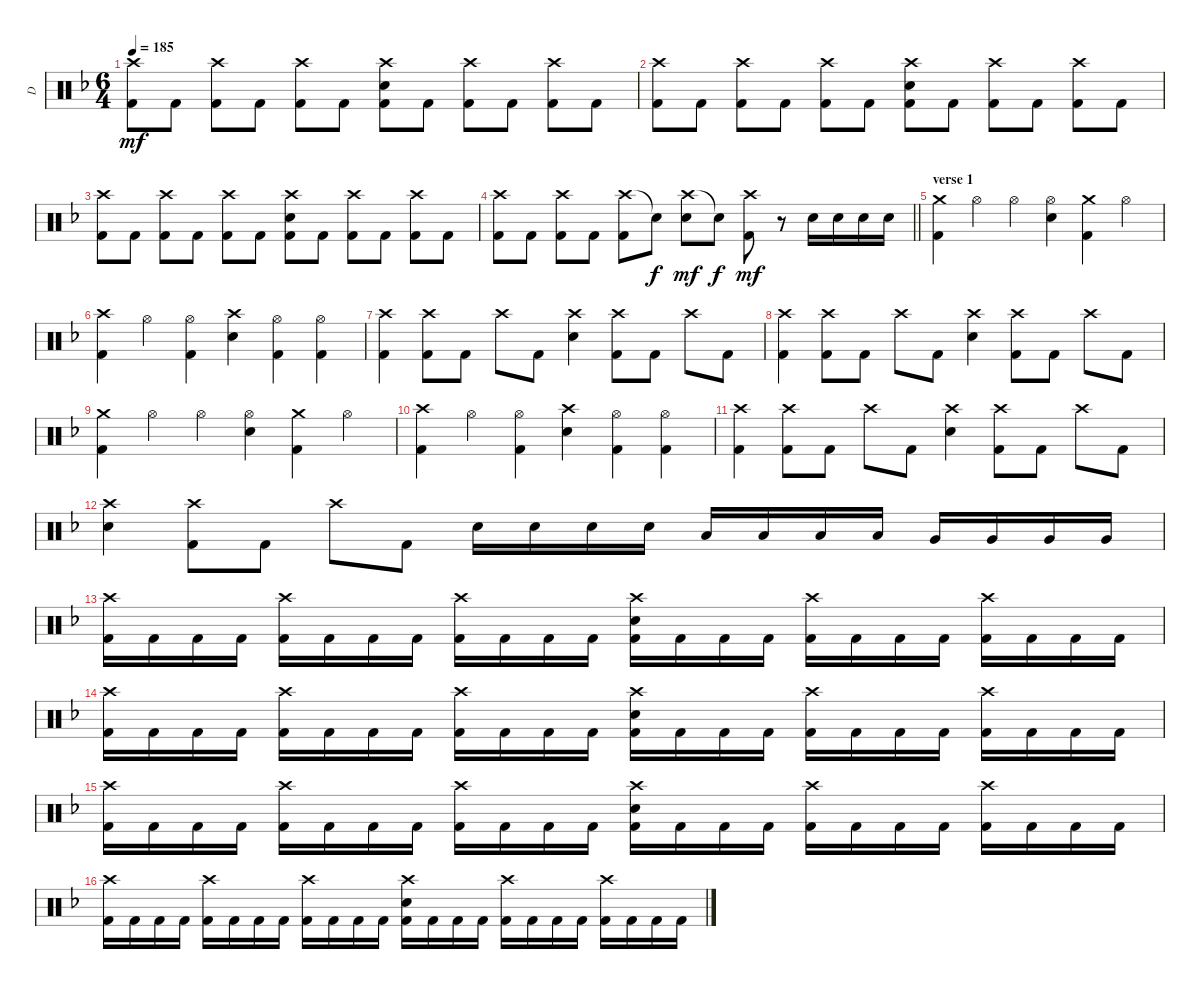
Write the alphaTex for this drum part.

\track ("D" "D") {instrument percussion}
\staff {score}
\articulation defaults
\ts (6 4)
\tempo 185
\clef neutral
\ks dminor
("Crash high (hit)" "Kick (hit) 2").8{dy mf} "Kick (hit) 2".8 ("Crash high (hit)" "Kick (hit) 2").8 "Kick (hit) 2".8 ("Crash high (hit)" "Kick (hit) 2").8 "Kick (hit) 2".8 ("Crash high (hit)" "Snare (hit) 2" "Kick (hit) 2").8 "Kick (hit) 2".8 ("Crash high (hit)" "Kick (hit) 2").8 "Kick (hit) 2".8 ("Crash high (hit)" "Kick (hit) 2").8 "Kick (hit) 2".8 |
("Crash high (hit)" "Kick (hit) 2").8 "Kick (hit) 2".8 ("Crash high (hit)" "Kick (hit) 2").8 "Kick (hit) 2".8 ("Crash high (hit)" "Kick (hit) 2").8 "Kick (hit) 2".8 ("Crash high (hit)" "Snare (hit) 2" "Kick (hit) 2").8 "Kick (hit) 2".8 ("Crash high (hit)" "Kick (hit) 2").8 "Kick (hit) 2".8 ("Crash high (hit)" "Kick (hit) 2").8 "Kick (hit) 2".8 |
("Crash high (hit)" "Kick (hit) 2").8 "Kick (hit) 2".8 ("Crash high (hit)" "Kick (hit) 2").8 "Kick (hit) 2".8 ("Crash high (hit)" "Kick (hit) 2").8 "Kick (hit) 2".8 ("Crash high (hit)" "Snare (hit) 2" "Kick (hit) 2").8 "Kick (hit) 2".8 ("Crash high (hit)" "Kick (hit) 2").8 "Kick (hit) 2".8 ("Crash high (hit)" "Kick (hit) 2").8 "Kick (hit) 2".8 |
\barLineRight lightlight
("Crash high (hit)" "Kick (hit) 2").8 "Kick (hit) 2".8 ("Crash high (hit)" "Kick (hit) 2").8 "Kick (hit) 2".8 ("Crash high (hit)" "Kick (hit) 2").8 "Snare (hit)"{t}.8{dy f} ("Crash high (hit)" "Snare (hit) 2").8{dy mf} "Snare (hit)"{t}.8{dy f} ("Crash high (hit)" "Kick (hit) 2").8{dy mf} r.8 "Snare (hit) 2".16 "Snare (hit) 2".16 "Snare (hit) 2".16 "Snare (hit) 2".16 |
\section ("" "verse 1")
("Crash medium (hit)" "Kick (hit) 2").4 "Hi-Hat (open)".4 "Hi-Hat (open)".4 ("Hi-Hat (open)" "Snare (hit) 2").4 ("Crash medium (hit)" "Kick (hit) 2").4 "Hi-Hat (open)".4 |
("Crash high (hit)" "Kick (hit) 2").4 "Hi-Hat (open)".4 ("Hi-Hat (open)" "Kick (hit) 2").4 ("Crash high (hit)" "Snare (hit) 2").4 ("Hi-Hat (open)" "Kick (hit) 2").4 ("Hi-Hat (open)" "Kick (hit) 2").4 |
("Crash high (hit)" "Kick (hit) 2").4 ("Crash high (hit)" "Kick (hit) 2").8 "Kick (hit) 2".8 "Crash high (hit)".8 "Kick (hit) 2".8 ("Crash high (hit)" "Snare (hit) 2").4 ("Crash high (hit)" "Kick (hit) 2").8 "Kick (hit) 2".8 "Crash high (hit)".8 "Kick (hit) 2".8 |
("Crash high (hit)" "Kick (hit) 2").4 ("Crash high (hit)" "Kick (hit) 2").8 "Kick (hit) 2".8 "Crash high (hit)".8 "Kick (hit) 2".8 ("Crash high (hit)" "Snare (hit) 2").4 ("Crash high (hit)" "Kick (hit) 2").8 "Kick (hit) 2".8 "Crash high (hit)".8 "Kick (hit) 2".8 |
("Crash medium (hit)" "Kick (hit) 2").4 "Hi-Hat (open)".4 "Hi-Hat (open)".4 ("Hi-Hat (open)" "Snare (hit) 2").4 ("Crash medium (hit)" "Kick (hit) 2").4 "Hi-Hat (open)".4 |
("Crash high (hit)" "Kick (hit) 2").4 "Hi-Hat (open)".4 ("Hi-Hat (open)" "Kick (hit) 2").4 ("Crash high (hit)" "Snare (hit) 2").4 ("Hi-Hat (open)" "Kick (hit) 2").4 ("Hi-Hat (open)" "Kick (hit) 2").4 |
("Crash high (hit)" "Kick (hit) 2").4 ("Crash high (hit)" "Kick (hit) 2").8 "Kick (hit) 2".8 "Crash high (hit)".8 "Kick (hit) 2".8 ("Crash high (hit)" "Snare (hit) 2").4 ("Crash high (hit)" "Kick (hit) 2").8 "Kick (hit) 2".8 "Crash high (hit)".8 "Kick (hit) 2".8 |
("Crash high (hit)" "Snare (hit) 2").4 ("Crash high (hit)" "Kick (hit) 2").8 "Kick (hit) 2".8 "Crash high (hit)".8 "Kick (hit) 2".8 "Snare (hit) 2".16 "Snare (hit) 2".16 "Snare (hit) 2".16 "Snare (hit) 2".16 "Low Tom (hit)".16 "Low Tom (hit)".16 "Low Tom (hit)".16 "Low Tom (hit)".16 "Very Low Tom (hit)".16 "Very Low Tom (hit)".16 "Very Low Tom (hit)".16 "Very Low Tom (hit)".16 |
("Crash high (hit)" "Kick (hit) 2").16 "Kick (hit) 2".16 "Kick (hit) 2".16 "Kick (hit) 2".16 ("Crash high (hit)" "Kick (hit) 2").16 "Kick (hit) 2".16 "Kick (hit) 2".16 "Kick (hit) 2".16 ("Crash high (hit)" "Kick (hit) 2").16 "Kick (hit) 2".16 "Kick (hit) 2".16 "Kick (hit) 2".16 ("Crash high (hit)" "Snare (hit) 2" "Kick (hit) 2").16 "Kick (hit) 2".16 "Kick (hit) 2".16 "Kick (hit) 2".16 ("Crash high (hit)" "Kick (hit) 2").16 "Kick (hit) 2".16 "Kick (hit) 2".16 "Kick (hit) 2".16 ("Crash high (hit)" "Kick (hit) 2").16 "Kick (hit) 2".16 "Kick (hit) 2".16 "Kick (hit) 2".16 |
("Crash high (hit)" "Kick (hit) 2").16 "Kick (hit) 2".16 "Kick (hit) 2".16 "Kick (hit) 2".16 ("Crash high (hit)" "Kick (hit) 2").16 "Kick (hit) 2".16 "Kick (hit) 2".16 "Kick (hit) 2".16 ("Crash high (hit)" "Kick (hit) 2").16 "Kick (hit) 2".16 "Kick (hit) 2".16 "Kick (hit) 2".16 ("Crash high (hit)" "Snare (hit) 2" "Kick (hit) 2").16 "Kick (hit) 2".16 "Kick (hit) 2".16 "Kick (hit) 2".16 ("Crash high (hit)" "Kick (hit) 2").16 "Kick (hit) 2".16 "Kick (hit) 2".16 "Kick (hit) 2".16 ("Crash high (hit)" "Kick (hit) 2").16 "Kick (hit) 2".16 "Kick (hit) 2".16 "Kick (hit) 2".16 |
("Crash high (hit)" "Kick (hit) 2").16 "Kick (hit) 2".16 "Kick (hit) 2".16 "Kick (hit) 2".16 ("Crash high (hit)" "Kick (hit) 2").16 "Kick (hit) 2".16 "Kick (hit) 2".16 "Kick (hit) 2".16 ("Crash high (hit)" "Kick (hit) 2").16 "Kick (hit) 2".16 "Kick (hit) 2".16 "Kick (hit) 2".16 ("Crash high (hit)" "Snare (hit) 2" "Kick (hit) 2").16 "Kick (hit) 2".16 "Kick (hit) 2".16 "Kick (hit) 2".16 ("Crash high (hit)" "Kick (hit) 2").16 "Kick (hit) 2".16 "Kick (hit) 2".16 "Kick (hit) 2".16 ("Crash high (hit)" "Kick (hit) 2").16 "Kick (hit) 2".16 "Kick (hit) 2".16 "Kick (hit) 2".16 |
("Crash high (hit)" "Kick (hit) 2").16 "Kick (hit) 2".16 "Kick (hit) 2".16 "Kick (hit) 2".16 ("Crash high (hit)" "Kick (hit) 2").16 "Kick (hit) 2".16 "Kick (hit) 2".16 "Kick (hit) 2".16 ("Crash high (hit)" "Kick (hit) 2").16 "Kick (hit) 2".16 "Kick (hit) 2".16 "Kick (hit) 2".16 ("Crash high (hit)" "Snare (hit) 2" "Kick (hit) 2").16 "Kick (hit) 2".16 "Kick (hit) 2".16 "Kick (hit) 2".16 ("Crash high (hit)" "Kick (hit) 2").16 "Kick (hit) 2".16 "Kick (hit) 2".16 "Kick (hit) 2".16 ("Crash high (hit)" "Kick (hit) 2").16 "Kick (hit) 2".16 "Kick (hit) 2".16 "Kick (hit) 2".16
